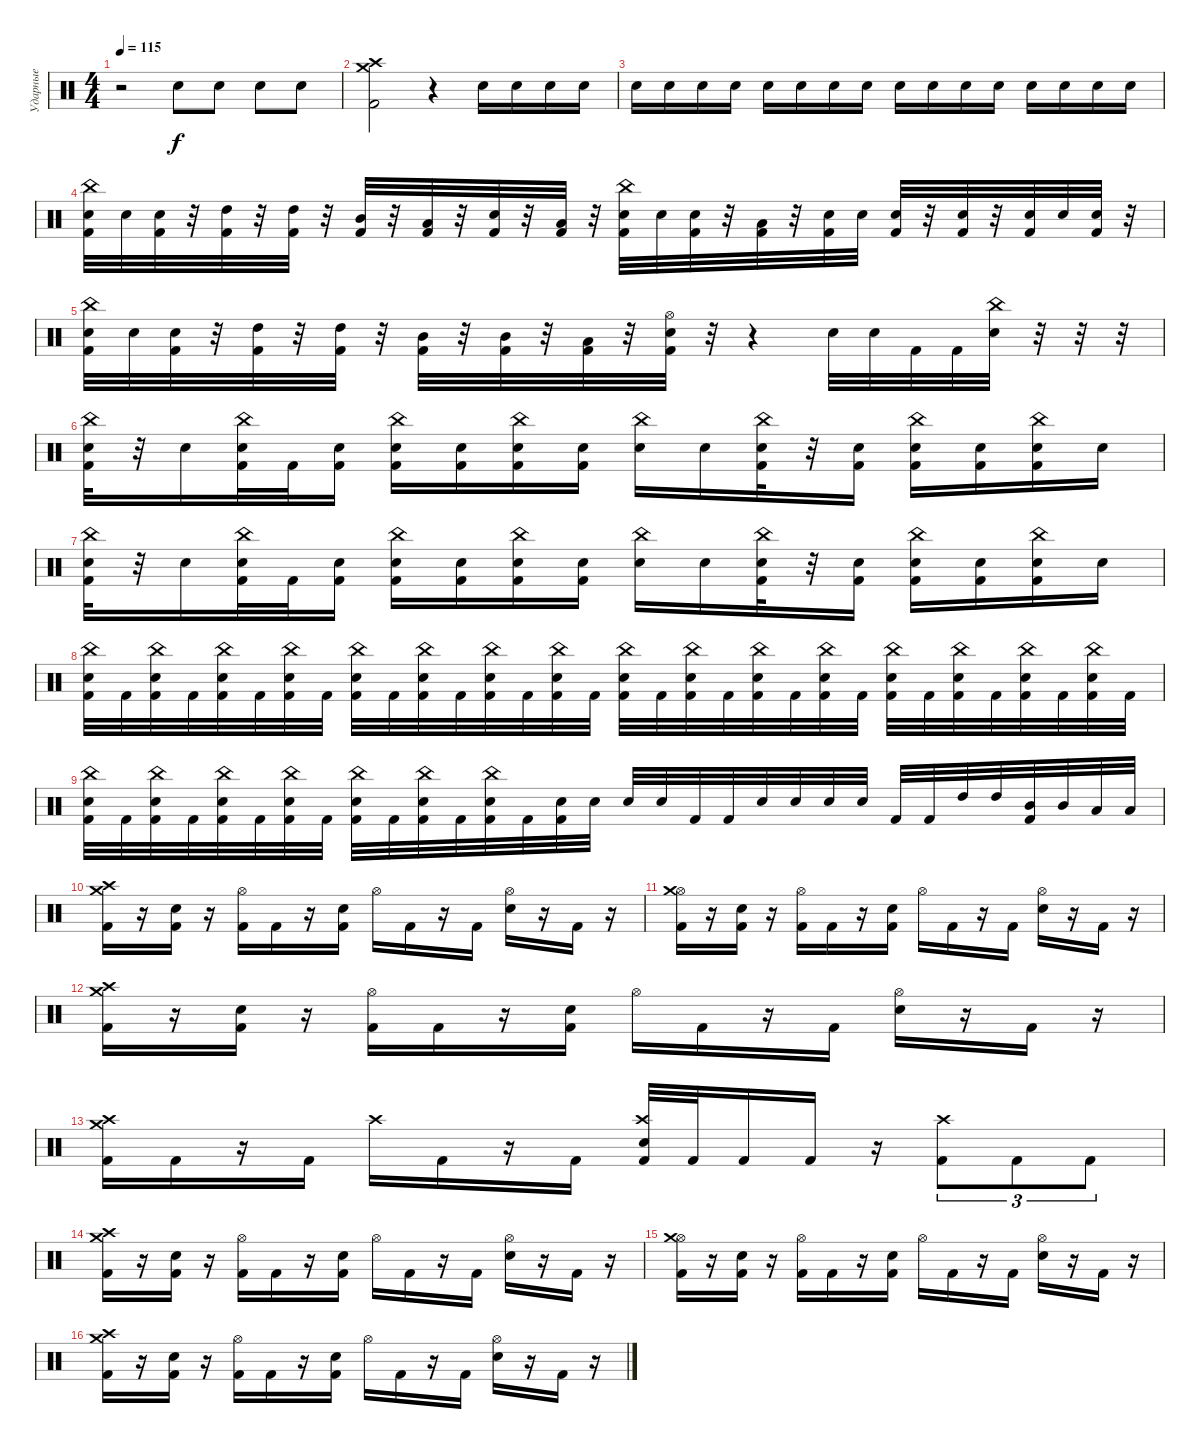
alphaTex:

\track ("Ударные" "Ударные") {instrument percussion}
\staff {score}
\articulation defaults
\ts (4 4)
\tempo 115
\clef neutral
\ks c
r.2{dy f} "Electric Snare (hit)".8 "Electric Snare (hit)".8 "Electric Snare (hit)".8 "Electric Snare (hit)".8 |
("Crash medium (hit)" "Crash high (hit)" "Kick (hit) 2").2 r.4{volume 0} "Electric Snare (hit)".16{volume 12} "Electric Snare (hit)".16 "Electric Snare (hit)".16 "Electric Snare (hit)".16 |
"Electric Snare (hit)".16 "Electric Snare (hit)".16 "Electric Snare (hit)".16 "Electric Snare (hit)".16 "Electric Snare (hit)".16 "Electric Snare (hit)".16 "Electric Snare (hit)".16 "Electric Snare (hit)".16 "Electric Snare (hit)".16 "Electric Snare (hit)".16 "Electric Snare (hit)".16 "Electric Snare (hit)".16 "Electric Snare (hit)".16 "Electric Snare (hit)".16 "Electric Snare (hit)".16 "Electric Snare (hit)".16 |
("China (hit)" "Electric Snare (hit)" "Kick (hit) 2").32 "Electric Snare (hit)".32 ("Electric Snare (hit)" "Kick (hit) 2").32 r.32 ("High Tom (hit)" "Kick (hit) 2").32 r.32 ("High Tom (hit)" "Kick (hit) 2").32 r.32 ("Mid Tom (hit)" "Kick (hit) 2").32 r.32 ("Low Tom (hit)" "Kick (hit) 2").32 r.32 ("Electric Snare (hit)" "Kick (hit) 2").32 r.32 ("Low Tom (hit)" "Kick (hit) 2").32 r.32 ("China (hit)" "Electric Snare (hit)" "Kick (hit) 2").32 "Electric Snare (hit)".32 ("Electric Snare (hit)" "Kick (hit) 2").32 r.32 ("Low Tom (hit)" "Kick (hit) 2").32 r.32 ("Electric Snare (hit)" "Kick (hit) 2").32 "Electric Snare (hit)".32 ("Electric Snare (hit)" "Kick (hit) 2").32 r.32 ("Electric Snare (hit)" "Kick (hit) 2").32 r.32 ("Electric Snare (hit)" "Kick (hit) 2").32 "Electric Snare (hit)".32 ("Electric Snare (hit)" "Kick (hit) 2").32 r.32 |
("China (hit)" "Electric Snare (hit)" "Kick (hit) 2").32 "Electric Snare (hit)".32 ("Electric Snare (hit)" "Kick (hit) 2").32 r.32 ("High Tom (hit)" "Kick (hit) 2").32 r.32 ("High Tom (hit)" "Kick (hit) 2").32 r.32 ("Mid Tom (hit)" "Kick (hit) 2").32 r.32 ("Mid Tom (hit)" "Kick (hit) 2").32 r.32 ("Low Tom (hit)" "Kick (hit) 2").32 r.32 ("Hi-Hat (open)" "Electric Snare (hit)" "Kick (hit) 2").32 r.32 r.4 "Electric Snare (hit)".32 "Electric Snare (hit)".32 "Kick (hit) 2".32 "Kick (hit) 2".32 ("China (hit)" "Electric Snare (hit)").32 r.32 r.32 r.32 |
("China (hit)" "Electric Snare (hit)" "Kick (hit) 2").32 r.32 "Electric Snare (hit)".16 ("China (hit)" "Electric Snare (hit)" "Kick (hit) 2").32 "Kick (hit) 2".32 ("Electric Snare (hit)" "Kick (hit) 2").16 ("China (hit)" "Electric Snare (hit)" "Kick (hit) 2").16 ("Electric Snare (hit)" "Kick (hit) 2").16 ("China (hit)" "Electric Snare (hit)" "Kick (hit) 2").16 ("Electric Snare (hit)" "Kick (hit) 2").16 ("China (hit)" "Electric Snare (hit)").16 "Electric Snare (hit)".16 ("China (hit)" "Electric Snare (hit)" "Kick (hit) 2").32 r.32 ("Electric Snare (hit)" "Kick (hit) 2").16 ("China (hit)" "Electric Snare (hit)" "Kick (hit) 2").16 ("Electric Snare (hit)" "Kick (hit) 2").16 ("China (hit)" "Electric Snare (hit)" "Kick (hit) 2").16 "Electric Snare (hit)".16 |
("China (hit)" "Electric Snare (hit)" "Kick (hit) 2").32 r.32 "Electric Snare (hit)".16 ("China (hit)" "Electric Snare (hit)" "Kick (hit) 2").32 "Kick (hit) 2".32 ("Electric Snare (hit)" "Kick (hit) 2").16 ("China (hit)" "Electric Snare (hit)" "Kick (hit) 2").16 ("Electric Snare (hit)" "Kick (hit) 2").16 ("China (hit)" "Electric Snare (hit)" "Kick (hit) 2").16 ("Electric Snare (hit)" "Kick (hit) 2").16 ("China (hit)" "Electric Snare (hit)").16 "Electric Snare (hit)".16 ("China (hit)" "Electric Snare (hit)" "Kick (hit) 2").32 r.32 ("Electric Snare (hit)" "Kick (hit) 2").16 ("China (hit)" "Electric Snare (hit)" "Kick (hit) 2").16 ("Electric Snare (hit)" "Kick (hit) 2").16 ("China (hit)" "Electric Snare (hit)" "Kick (hit) 2").16 "Electric Snare (hit)".16 |
("China (hit)" "Electric Snare (hit)" "Kick (hit) 2").32 "Kick (hit) 2".32 ("China (hit)" "Electric Snare (hit)" "Kick (hit) 2").32 "Kick (hit) 2".32 ("China (hit)" "Electric Snare (hit)" "Kick (hit) 2").32 "Kick (hit) 2".32 ("China (hit)" "Electric Snare (hit)" "Kick (hit) 2").32 "Kick (hit) 2".32 ("China (hit)" "Electric Snare (hit)" "Kick (hit) 2").32 "Kick (hit) 2".32 ("China (hit)" "Electric Snare (hit)" "Kick (hit) 2").32 "Kick (hit) 2".32 ("China (hit)" "Electric Snare (hit)" "Kick (hit) 2").32 "Kick (hit) 2".32 ("China (hit)" "Electric Snare (hit)" "Kick (hit) 2").32 "Kick (hit) 2".32 ("China (hit)" "Electric Snare (hit)" "Kick (hit) 2").32 "Kick (hit) 2".32 ("China (hit)" "Electric Snare (hit)" "Kick (hit) 2").32 "Kick (hit) 2".32 ("China (hit)" "Electric Snare (hit)" "Kick (hit) 2").32 "Kick (hit) 2".32 ("China (hit)" "Electric Snare (hit)" "Kick (hit) 2").32 "Kick (hit) 2".32 ("China (hit)" "Electric Snare (hit)" "Kick (hit) 2").32 "Kick (hit) 2".32 ("China (hit)" "Electric Snare (hit)" "Kick (hit) 2").32 "Kick (hit) 2".32 ("China (hit)" "Electric Snare (hit)" "Kick (hit) 2").32 "Kick (hit) 2".32 ("China (hit)" "Electric Snare (hit)" "Kick (hit) 2").32 "Kick (hit) 2".32 |
("China (hit)" "Electric Snare (hit)" "Kick (hit) 2").32 "Kick (hit) 2".32 ("China (hit)" "Electric Snare (hit)" "Kick (hit) 2").32 "Kick (hit) 2".32 ("China (hit)" "Electric Snare (hit)" "Kick (hit) 2").32 "Kick (hit) 2".32 ("China (hit)" "Electric Snare (hit)" "Kick (hit) 2").32 "Kick (hit) 2".32 ("China (hit)" "Electric Snare (hit)" "Kick (hit) 2").32 "Kick (hit) 2".32 ("China (hit)" "Electric Snare (hit)" "Kick (hit) 2").32 "Kick (hit) 2".32 ("China (hit)" "Electric Snare (hit)" "Kick (hit) 2").32 "Kick (hit) 2".32 ("Electric Snare (hit)" "Kick (hit) 2").32 "Electric Snare (hit)".32 "Electric Snare (hit)".32 "Electric Snare (hit)".32 "Kick (hit) 2".32 "Kick (hit) 2".32 "Electric Snare (hit)".32 "Electric Snare (hit)".32 "Electric Snare (hit)".32 "Electric Snare (hit)".32 "Kick (hit) 2".32 "Kick (hit) 2".32 "High Tom (hit)".32 "High Tom (hit)".32 ("Mid Tom (hit)" "Kick (hit) 2").32 "Mid Tom (hit)".32 "Low Tom (hit)".32 "Low Tom (hit)".32 |
("Crash high (hit)" "Crash medium (hit)" "Kick (hit) 2").16 r.16 ("Electric Snare (hit)" "Kick (hit) 2").16 r.16 ("Hi-Hat (open)" "Kick (hit) 2").16 "Kick (hit) 2".16 r.16 ("Electric Snare (hit)" "Kick (hit) 2").16 "Hi-Hat (open)".16 "Kick (hit) 2".16 r.16 "Kick (hit) 2".16 ("Hi-Hat (open)" "Electric Snare (hit)").16 r.16 "Kick (hit) 2".16 r.16 |
("Hi-Hat (open)" "Crash medium (hit)" "Kick (hit) 2").16 r.16 ("Electric Snare (hit)" "Kick (hit) 2").16 r.16 ("Hi-Hat (open)" "Kick (hit) 2").16 "Kick (hit) 2".16 r.16 ("Electric Snare (hit)" "Kick (hit) 2").16 "Hi-Hat (open)".16 "Kick (hit) 2".16 r.16 "Kick (hit) 2".16 ("Hi-Hat (open)" "Electric Snare (hit)").16 r.16 "Kick (hit) 2".16 r.16 |
("Crash high (hit)" "Crash medium (hit)" "Kick (hit) 2").16 r.16 ("Electric Snare (hit)" "Kick (hit) 2").16 r.16 ("Hi-Hat (open)" "Kick (hit) 2").16 "Kick (hit) 2".16 r.16 ("Electric Snare (hit)" "Kick (hit) 2").16 "Hi-Hat (open)".16 "Kick (hit) 2".16 r.16 "Kick (hit) 2".16 ("Hi-Hat (open)" "Electric Snare (hit)").16 r.16 "Kick (hit) 2".16 r.16 |
("Crash high (hit)" "Crash medium (hit)" "Kick (hit) 2").16 "Kick (hit) 2".16 r.16 "Kick (hit) 2".16 "Crash high (hit)".16 "Kick (hit) 2".16 r.16 "Kick (hit) 2".16 ("Crash high (hit)" "Electric Snare (hit)" "Kick (hit) 2").32 "Kick (hit) 2".32 "Kick (hit) 2".16 "Kick (hit) 2".16 r.16 ("Crash high (hit)" "Kick (hit) 2").8{tu (3 2)} "Kick (hit) 2".8{tu (3 2)} "Kick (hit) 2".8{tu (3 2)} |
("Crash high (hit)" "Crash medium (hit)" "Kick (hit) 2").16 r.16 ("Electric Snare (hit)" "Kick (hit) 2").16 r.16 ("Hi-Hat (open)" "Kick (hit) 2").16 "Kick (hit) 2".16 r.16 ("Electric Snare (hit)" "Kick (hit) 2").16 "Hi-Hat (open)".16 "Kick (hit) 2".16 r.16 "Kick (hit) 2".16 ("Hi-Hat (open)" "Electric Snare (hit)").16 r.16 "Kick (hit) 2".16 r.16 |
("Hi-Hat (open)" "Crash medium (hit)" "Kick (hit) 2").16 r.16 ("Electric Snare (hit)" "Kick (hit) 2").16 r.16 ("Hi-Hat (open)" "Kick (hit) 2").16 "Kick (hit) 2".16 r.16 ("Electric Snare (hit)" "Kick (hit) 2").16 "Hi-Hat (open)".16 "Kick (hit) 2".16 r.16 "Kick (hit) 2".16 ("Hi-Hat (open)" "Electric Snare (hit)").16 r.16 "Kick (hit) 2".16 r.16 |
("Crash high (hit)" "Crash medium (hit)" "Kick (hit) 2").16 r.16 ("Electric Snare (hit)" "Kick (hit) 2").16 r.16 ("Hi-Hat (open)" "Kick (hit) 2").16 "Kick (hit) 2".16 r.16 ("Electric Snare (hit)" "Kick (hit) 2").16 "Hi-Hat (open)".16 "Kick (hit) 2".16 r.16 "Kick (hit) 2".16 ("Hi-Hat (open)" "Electric Snare (hit)").16 r.16 "Kick (hit) 2".16 r.16
